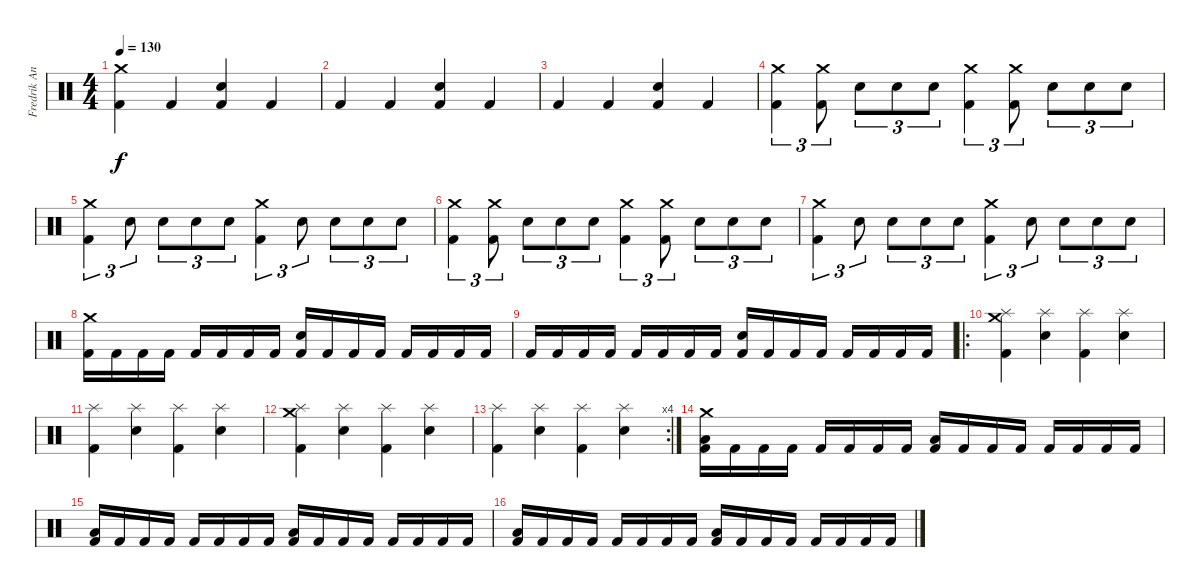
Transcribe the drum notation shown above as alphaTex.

\track ("Fredrik Andersson" "Fredrik An") {instrument percussion}
\staff {score}
\articulation defaults
\ts (4 4)
\tempo 130
\clef neutral
\ks c
("Crash medium (hit)" "Kick (hit) 2").4{dy f} "Kick (hit) 2".4 ("Electric Snare (hit)" "Kick (hit) 2").4 "Kick (hit) 2".4 |
"Kick (hit) 2".4 "Kick (hit) 2".4 ("Electric Snare (hit)" "Kick (hit) 2").4 "Kick (hit) 2".4 |
"Kick (hit) 2".4 "Kick (hit) 2".4 ("Electric Snare (hit)" "Kick (hit) 2").4 "Kick (hit) 2".4 |
("Crash medium (hit)" "Kick (hit) 2").4{tu (3 2)} ("Crash medium (hit)" "Kick (hit) 2").8{tu (3 2)} "Electric Snare (hit)".8{tu (3 2)} "Electric Snare (hit)".8{tu (3 2)} "Electric Snare (hit)".8{tu (3 2)} ("Crash medium (hit)" "Kick (hit) 2").4{tu (3 2)} ("Crash medium (hit)" "Kick (hit) 2").8{tu (3 2)} "Electric Snare (hit)".8{tu (3 2)} "Electric Snare (hit)".8{tu (3 2)} "Electric Snare (hit)".8{tu (3 2)} |
("Crash medium (hit)" "Kick (hit) 2").4{tu (3 2)} "Electric Snare (hit)".8{tu (3 2)} "Electric Snare (hit)".8{tu (3 2)} "Electric Snare (hit)".8{tu (3 2)} "Electric Snare (hit)".8{tu (3 2)} ("Crash medium (hit)" "Kick (hit) 2").4{tu (3 2)} "Electric Snare (hit)".8{tu (3 2)} "Electric Snare (hit)".8{tu (3 2)} "Electric Snare (hit)".8{tu (3 2)} "Electric Snare (hit)".8{tu (3 2)} |
("Crash medium (hit)" "Kick (hit) 2").4{tu (3 2)} ("Crash medium (hit)" "Kick (hit) 2").8{tu (3 2)} "Electric Snare (hit)".8{tu (3 2)} "Electric Snare (hit)".8{tu (3 2)} "Electric Snare (hit)".8{tu (3 2)} ("Crash medium (hit)" "Kick (hit) 2").4{tu (3 2)} ("Crash medium (hit)" "Kick (hit) 2").8{tu (3 2)} "Electric Snare (hit)".8{tu (3 2)} "Electric Snare (hit)".8{tu (3 2)} "Electric Snare (hit)".8{tu (3 2)} |
("Crash medium (hit)" "Kick (hit) 2").4{tu (3 2)} "Electric Snare (hit)".8{tu (3 2)} "Electric Snare (hit)".8{tu (3 2)} "Electric Snare (hit)".8{tu (3 2)} "Electric Snare (hit)".8{tu (3 2)} ("Crash medium (hit)" "Kick (hit) 2").4{tu (3 2)} "Electric Snare (hit)".8{tu (3 2)} "Electric Snare (hit)".8{tu (3 2)} "Electric Snare (hit)".8{tu (3 2)} "Electric Snare (hit)".8{tu (3 2)} |
("Crash medium (hit)" "Kick (hit) 2").16 "Kick (hit) 2".16 "Kick (hit) 2".16 "Kick (hit) 2".16 "Kick (hit) 2".16 "Kick (hit) 2".16 "Kick (hit) 2".16 "Kick (hit) 2".16 ("Electric Snare (hit)" "Kick (hit) 2").16 "Kick (hit) 2".16 "Kick (hit) 2".16 "Kick (hit) 2".16 "Kick (hit) 2".16 "Kick (hit) 2".16 "Kick (hit) 2".16 "Kick (hit) 2".16 |
"Kick (hit) 2".16 "Kick (hit) 2".16 "Kick (hit) 2".16 "Kick (hit) 2".16 "Kick (hit) 2".16 "Kick (hit) 2".16 "Kick (hit) 2".16 "Kick (hit) 2".16 ("Electric Snare (hit)" "Kick (hit) 2").16 "Kick (hit) 2".16 "Kick (hit) 2".16 "Kick (hit) 2".16 "Kick (hit) 2".16 "Kick (hit) 2".16 "Kick (hit) 2".16 "Kick (hit) 2".16 |
\ro
("Crash medium (hit)" "Splash (hit)" "Kick (hit) 2").4 ("Splash (hit)" "Electric Snare (hit)").4 ("Splash (hit)" "Kick (hit) 2").4 ("Splash (hit)" "Electric Snare (hit)").4 |
("Splash (hit)" "Kick (hit) 2").4 ("Splash (hit)" "Electric Snare (hit)").4 ("Splash (hit)" "Kick (hit) 2").4 ("Splash (hit)" "Electric Snare (hit)").4 |
("Crash medium (hit)" "Splash (hit)" "Kick (hit) 2").4 ("Splash (hit)" "Electric Snare (hit)").4 ("Splash (hit)" "Kick (hit) 2").4 ("Splash (hit)" "Electric Snare (hit)").4 |
\rc 4
("Splash (hit)" "Kick (hit) 2").4 ("Splash (hit)" "Electric Snare (hit)").4 ("Splash (hit)" "Kick (hit) 2").4 ("Splash (hit)" "Electric Snare (hit)").4 |
("Crash medium (hit)" "Low Floor Tom (hit)" "Kick (hit) 2").16 "Kick (hit) 2".16 "Kick (hit) 2".16 "Kick (hit) 2".16 "Kick (hit) 2".16 "Kick (hit) 2".16 "Kick (hit) 2".16 "Kick (hit) 2".16 ("Low Floor Tom (hit)" "Kick (hit) 2").16 "Kick (hit) 2".16 "Kick (hit) 2".16 "Kick (hit) 2".16 "Kick (hit) 2".16 "Kick (hit) 2".16 "Kick (hit) 2".16 "Kick (hit) 2".16 |
("Low Floor Tom (hit)" "Kick (hit) 2").16 "Kick (hit) 2".16 "Kick (hit) 2".16 "Kick (hit) 2".16 "Kick (hit) 2".16 "Kick (hit) 2".16 "Kick (hit) 2".16 "Kick (hit) 2".16 ("Low Floor Tom (hit)" "Kick (hit) 2").16 "Kick (hit) 2".16 "Kick (hit) 2".16 "Kick (hit) 2".16 "Kick (hit) 2".16 "Kick (hit) 2".16 "Kick (hit) 2".16 "Kick (hit) 2".16 |
("Low Floor Tom (hit)" "Kick (hit) 2").16 "Kick (hit) 2".16 "Kick (hit) 2".16 "Kick (hit) 2".16 "Kick (hit) 2".16 "Kick (hit) 2".16 "Kick (hit) 2".16 "Kick (hit) 2".16 ("Low Floor Tom (hit)" "Kick (hit) 2").16 "Kick (hit) 2".16 "Kick (hit) 2".16 "Kick (hit) 2".16 "Kick (hit) 2".16 "Kick (hit) 2".16 "Kick (hit) 2".16 "Kick (hit) 2".16
